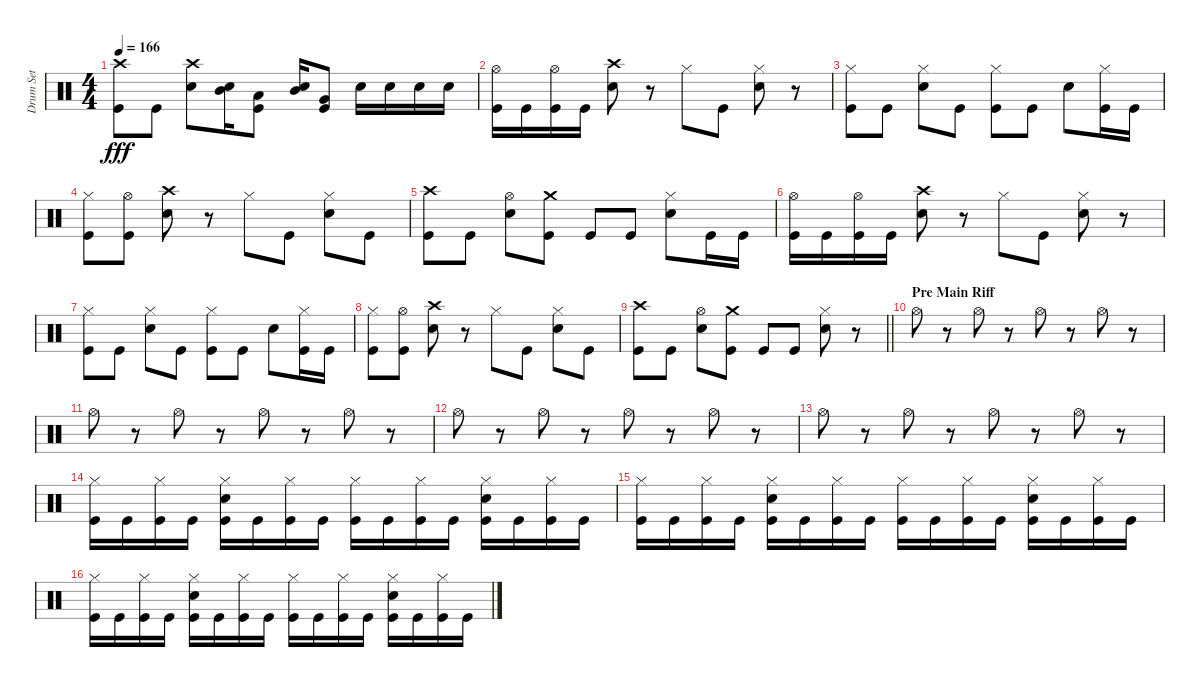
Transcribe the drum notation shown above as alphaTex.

\track ("Drum Set" "Drum Set") {instrument percussion}
\staff {score}
\articulation defaults
\ts (4 4)
\tempo 166
\clef neutral
\ks c
("Kick (hit)" "Crash high (hit)").8{dy fff} "Kick (hit)".8 ("Electric Snare (hit)" "Crash high (hit)").8 ("Electric Snare (hit)" "Mid Tom (hit)").16 ("Kick (hit)" "Low Tom (hit)").8 ("Electric Snare (hit)" "Mid Tom (hit)").16 ("Kick (hit)" "Very Low Tom (hit)").8 "Electric Snare (hit)".16 "Electric Snare (hit)".16 "Electric Snare (hit)".16 "Electric Snare (hit)".16 |
("Kick (hit)" "Hi-Hat (open)").16 "Kick (hit)".16 ("Kick (hit)" "Hi-Hat (open)").16 "Kick (hit)".16 ("Electric Snare (hit)" "Crash high (hit)").8 r.8 "Hi-Hat (closed)".8 "Kick (hit)".8 ("Electric Snare (hit)" "Hi-Hat (closed)").8 r.8 |
("Kick (hit)" "Hi-Hat (closed)").8 "Kick (hit)".8 ("Electric Snare (hit)" "Hi-Hat (closed)").8 "Kick (hit)".8 ("Kick (hit)" "Hi-Hat (closed)").8 "Kick (hit)".8 "Electric Snare (hit)".8 ("Kick (hit)" "Hi-Hat (closed)").16 "Kick (hit)".16 |
("Kick (hit)" "Hi-Hat (closed)").8 ("Kick (hit)" "Hi-Hat (open)").8 ("Electric Snare (hit)" "Crash high (hit)").8 r.8 "Hi-Hat (closed)".8 "Kick (hit)".8 ("Electric Snare (hit)" "Hi-Hat (closed)").8 "Kick (hit)".8 |
("Kick (hit)" "Crash high (hit)").8 "Kick (hit)".8 ("Electric Snare (hit)" "Hi-Hat (open)").8 ("Kick (hit)" "Crash medium (hit)").8 "Kick (hit)".8 "Kick (hit)".8 ("Electric Snare (hit)" "Hi-Hat (closed)").8 "Kick (hit)".16 "Kick (hit)".16 |
("Kick (hit)" "Hi-Hat (open)").16 "Kick (hit)".16 ("Kick (hit)" "Hi-Hat (open)").16 "Kick (hit)".16 ("Electric Snare (hit)" "Crash high (hit)").8 r.8 "Hi-Hat (closed)".8 "Kick (hit)".8 ("Electric Snare (hit)" "Hi-Hat (closed)").8 r.8 |
("Kick (hit)" "Hi-Hat (closed)").8 "Kick (hit)".8 ("Electric Snare (hit)" "Hi-Hat (closed)").8 "Kick (hit)".8 ("Kick (hit)" "Hi-Hat (closed)").8 "Kick (hit)".8 "Electric Snare (hit)".8 ("Kick (hit)" "Hi-Hat (closed)").16 "Kick (hit)".16 |
("Kick (hit)" "Hi-Hat (closed)").8 ("Kick (hit)" "Hi-Hat (open)").8 ("Electric Snare (hit)" "Crash high (hit)").8 r.8 "Hi-Hat (closed)".8 "Kick (hit)".8 ("Electric Snare (hit)" "Hi-Hat (closed)").8 "Kick (hit)".8 |
\barLineRight lightlight
("Kick (hit)" "Crash high (hit)").8 "Kick (hit)".8 ("Electric Snare (hit)" "Hi-Hat (open)").8 ("Kick (hit)" "Crash medium (hit)").8 "Kick (hit)".8 "Kick (hit)".8 ("Electric Snare (hit)" "Hi-Hat (closed)").8 r.8 |
\section ("" "Pre Main Riff")
"Hi-Hat (open)".8 r.8 "Hi-Hat (open)".8 r.8 "Hi-Hat (open)".8 r.8 "Hi-Hat (open)".8 r.8 |
"Hi-Hat (open)".8 r.8 "Hi-Hat (open)".8 r.8 "Hi-Hat (open)".8 r.8 "Hi-Hat (open)".8 r.8 |
"Hi-Hat (open)".8 r.8 "Hi-Hat (open)".8 r.8 "Hi-Hat (open)".8 r.8 "Hi-Hat (open)".8 r.8 |
"Hi-Hat (open)".8 r.8 "Hi-Hat (open)".8 r.8 "Hi-Hat (open)".8 r.8 "Hi-Hat (open)".8 r.8 |
("Kick (hit)" "Hi-Hat (closed)").16 "Kick (hit)".16 ("Kick (hit)" "Hi-Hat (closed)").16 "Kick (hit)".16 ("Electric Snare (hit)" "Kick (hit)" "Hi-Hat (closed)").16 "Kick (hit)".16 ("Kick (hit)" "Hi-Hat (closed)").16 "Kick (hit)".16 ("Kick (hit)" "Hi-Hat (closed)").16 "Kick (hit)".16 ("Kick (hit)" "Hi-Hat (closed)").16 "Kick (hit)".16 ("Electric Snare (hit)" "Kick (hit)" "Hi-Hat (closed)").16 "Kick (hit)".16 ("Kick (hit)" "Hi-Hat (closed)").16 "Kick (hit)".16 |
("Kick (hit)" "Hi-Hat (closed)").16 "Kick (hit)".16 ("Kick (hit)" "Hi-Hat (closed)").16 "Kick (hit)".16 ("Electric Snare (hit)" "Kick (hit)" "Hi-Hat (closed)").16 "Kick (hit)".16 ("Kick (hit)" "Hi-Hat (closed)").16 "Kick (hit)".16 ("Kick (hit)" "Hi-Hat (closed)").16 "Kick (hit)".16 ("Kick (hit)" "Hi-Hat (closed)").16 "Kick (hit)".16 ("Electric Snare (hit)" "Kick (hit)" "Hi-Hat (closed)").16 "Kick (hit)".16 ("Kick (hit)" "Hi-Hat (closed)").16 "Kick (hit)".16 |
("Kick (hit)" "Hi-Hat (closed)").16 "Kick (hit)".16 ("Kick (hit)" "Hi-Hat (closed)").16 "Kick (hit)".16 ("Electric Snare (hit)" "Kick (hit)" "Hi-Hat (closed)").16 "Kick (hit)".16 ("Kick (hit)" "Hi-Hat (closed)").16 "Kick (hit)".16 ("Kick (hit)" "Hi-Hat (closed)").16 "Kick (hit)".16 ("Kick (hit)" "Hi-Hat (closed)").16 "Kick (hit)".16 ("Electric Snare (hit)" "Kick (hit)" "Hi-Hat (closed)").16 "Kick (hit)".16 ("Kick (hit)" "Hi-Hat (closed)").16 "Kick (hit)".16
